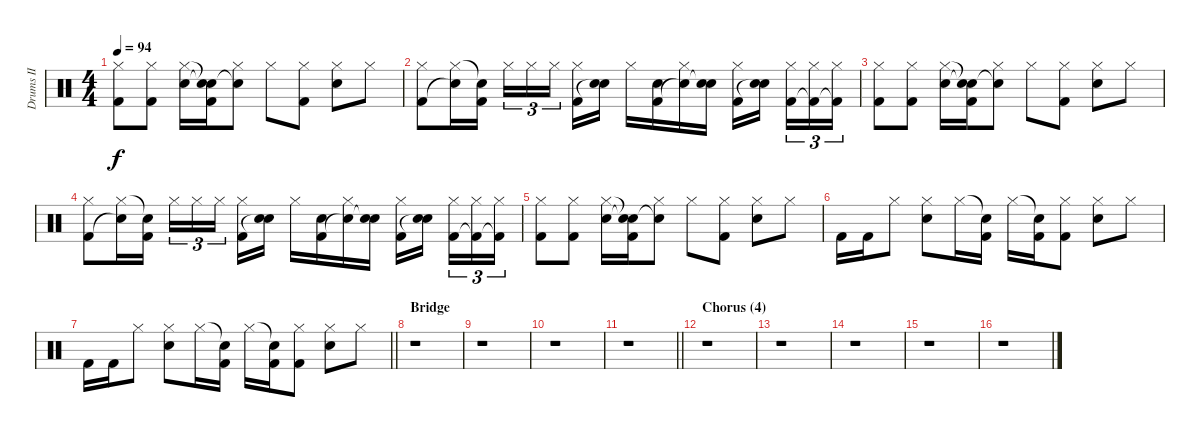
\track ("Drums II" "Drums II") {instrument percussion}
\staff {score}
\articulation defaults
\ts (4 4)
\tempo 94
\clef neutral
\ks aminor
("Hi-Hat (closed)" "Kick (hit) 2").8{dy f} ("Hi-Hat (closed)" "Kick (hit) 2").8 ("Hi-Hat (closed)" "Electric Snare (hit)").16 ("Snare (hit)"{t} "Snare (hit)"{t} "Kick (hit) 2").16 ("Hi-Hat (closed)" "Snare (hit)"{t}).8 "Hi-Hat (closed)".8 ("Hi-Hat (closed)" "Kick (hit) 2").8 ("Hi-Hat (closed)" "Electric Snare (hit)").8 "Hi-Hat (closed)".8 |
("Hi-Hat (closed)" "Kick (hit) 2").8 ("Hi-Hat (closed)" "Snare (hit)"{t}).16 ("Snare (hit)"{t} "Kick (hit) 2").16 "Hi-Hat (closed)".16{tu (3 2)} "Hi-Hat (closed)".16{tu (3 2)} "Hi-Hat (closed)".16{tu (3 2)} ("Hi-Hat (closed)" "Kick (hit) 2").16 ("Electric Snare (hit)" "Snare (hit)"{t}).16 "Hi-Hat (closed)".16 ("Electric Snare (hit)" "Kick (hit) 2").16 ("Hi-Hat (closed)" "Snare (hit)"{t}).16 ("Electric Snare (hit)" "Snare (hit)"{t}).16 ("Hi-Hat (closed)" "Kick (hit) 2").16 ("Electric Snare (hit)" "Snare (hit)"{t}).16 ("Hi-Hat (closed)" "Kick (hit) 2").16{tu (3 2)} ("Hi-Hat (closed)" "Kick (hit) 2"{t}).16{tu (3 2)} ("Hi-Hat (closed)" "Kick (hit) 2"{t}).16{tu (3 2)} |
("Hi-Hat (closed)" "Kick (hit) 2").8 ("Hi-Hat (closed)" "Kick (hit) 2").8 ("Hi-Hat (closed)" "Electric Snare (hit)").16 ("Snare (hit)"{t} "Snare (hit)"{t} "Kick (hit) 2").16 ("Hi-Hat (closed)" "Snare (hit)"{t}).8 "Hi-Hat (closed)".8 ("Hi-Hat (closed)" "Kick (hit) 2").8 ("Hi-Hat (closed)" "Electric Snare (hit)").8 "Hi-Hat (closed)".8 |
("Hi-Hat (closed)" "Kick (hit) 2").8 ("Hi-Hat (closed)" "Snare (hit)"{t}).16 ("Snare (hit)"{t} "Kick (hit) 2").16 "Hi-Hat (closed)".16{tu (3 2)} "Hi-Hat (closed)".16{tu (3 2)} "Hi-Hat (closed)".16{tu (3 2)} ("Hi-Hat (closed)" "Kick (hit) 2").16 ("Electric Snare (hit)" "Snare (hit)"{t}).16 "Hi-Hat (closed)".16 ("Electric Snare (hit)" "Kick (hit) 2").16 ("Hi-Hat (closed)" "Snare (hit)"{t}).16 ("Electric Snare (hit)" "Snare (hit)"{t}).16 ("Hi-Hat (closed)" "Kick (hit) 2").16 ("Electric Snare (hit)" "Snare (hit)"{t}).16 ("Hi-Hat (closed)" "Kick (hit) 2").16{tu (3 2)} ("Hi-Hat (closed)" "Kick (hit) 2"{t}).16{tu (3 2)} ("Hi-Hat (closed)" "Kick (hit) 2"{t}).16{tu (3 2)} |
("Hi-Hat (closed)" "Kick (hit) 2").8 ("Hi-Hat (closed)" "Kick (hit) 2").8 ("Hi-Hat (closed)" "Electric Snare (hit)").16 ("Snare (hit)"{t} "Snare (hit)"{t} "Kick (hit) 2").16 ("Hi-Hat (closed)" "Snare (hit)"{t}).8 "Hi-Hat (closed)".8 ("Hi-Hat (closed)" "Kick (hit) 2").8 ("Hi-Hat (closed)" "Electric Snare (hit)").8 "Hi-Hat (closed)".8 |
"Kick (hit) 2".16 "Kick (hit) 2".16 "Hi-Hat (closed)".8 ("Hi-Hat (closed)" "Electric Snare (hit)").8 "Hi-Hat (closed)".16 ("Snare (hit)"{t} "Kick (hit) 2").16 "Hi-Hat (closed)".16 ("Snare (hit)"{t} "Kick (hit) 2").16 ("Hi-Hat (closed)" "Kick (hit) 2").8 ("Hi-Hat (closed)" "Electric Snare (hit)").8 "Hi-Hat (closed)".8 |
\barLineRight lightlight "Kick (hit) 2".16 "Kick (hit) 2".16 "Hi-Hat (closed)".8
("Hi-Hat (closed)" "Electric Snare (hit)").8 "Hi-Hat (closed)".16 ("Snare (hit)"{t} "Kick (hit) 2").16 "Hi-Hat (closed)".16 ("Snare (hit)"{t} "Kick (hit) 2").16 ("Hi-Hat (closed)" "Kick (hit) 2").8 ("Hi-Hat (closed)" "Electric Snare (hit)").8 "Hi-Hat (closed)".8 |
\section ("" "Bridge")
r.1 |
r.1 |
r.1 |
\barLineRight lightlight
r.1 |
\section ("" "Chorus (4)")
r.1 |
r.1 |
r.1 |
r.1 |
r.1
